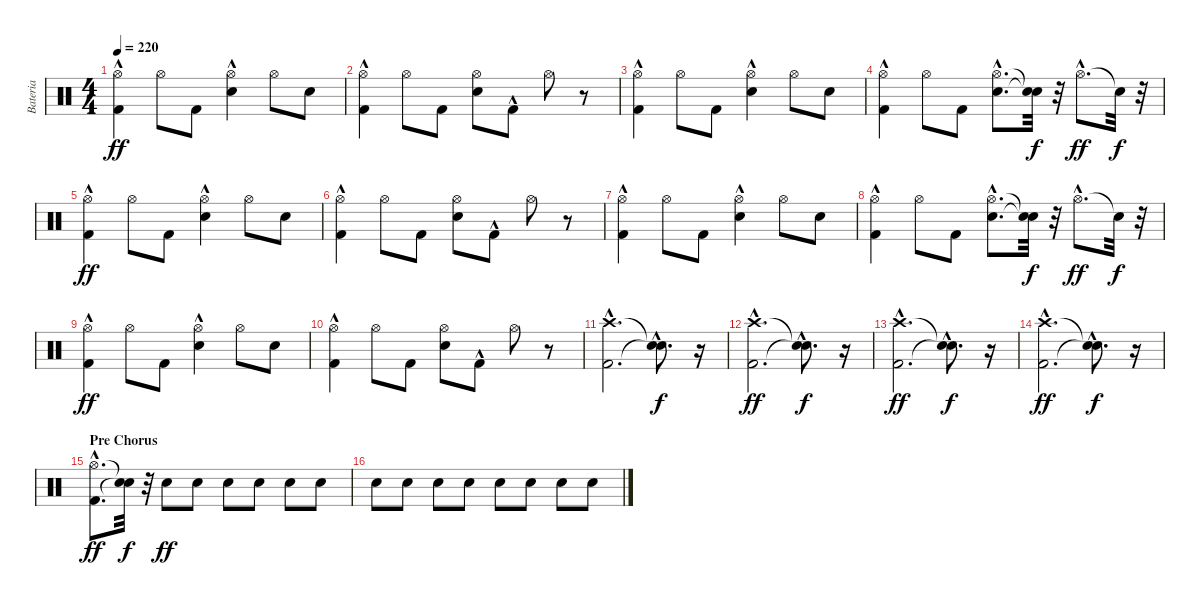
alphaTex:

\track ("Bateria" "Bateria") {instrument percussion}
\staff {score}
\articulation defaults
\ts (4 4)
\tempo 220
\clef neutral
\ks c
("Kick (hit) 2"{hac} "Hi-Hat (open)"{hac}).4{dy ff} "Hi-Hat (open)".8 "Kick (hit) 2".8 ("Electric Snare (hit)"{hac} "Hi-Hat (open)"{hac}).4 "Hi-Hat (open)".8 "Electric Snare (hit)".8 |
("Kick (hit) 2"{hac} "Hi-Hat (open)"{hac}).4 "Hi-Hat (open)".8 "Kick (hit) 2".8 ("Electric Snare (hit)" "Hi-Hat (open)").8 "Kick (hit) 2"{hac}.8 "Hi-Hat (open)".8 r.8 |
("Kick (hit) 2"{hac} "Hi-Hat (open)"{hac}).4 "Hi-Hat (open)".8 "Kick (hit) 2".8 ("Electric Snare (hit)"{hac} "Hi-Hat (open)"{hac}).4 "Hi-Hat (open)".8 "Electric Snare (hit)".8 |
("Kick (hit) 2"{hac} "Hi-Hat (open)"{hac}).4 "Hi-Hat (open)".8 "Kick (hit) 2".8 ("Electric Snare (hit)"{hac} "Hi-Hat (open)"{hac}).8{d} ("Snare (hit)"{t} "Snare (hit)"{t}).32{dy f} r.32 "Hi-Hat (open)"{hac}.8{d dy ff} "Snare (hit)"{t}.32{dy f} r.32 |
("Kick (hit) 2"{hac} "Hi-Hat (open)"{hac}).4{dy ff} "Hi-Hat (open)".8 "Kick (hit) 2".8 ("Electric Snare (hit)"{hac} "Hi-Hat (open)"{hac}).4 "Hi-Hat (open)".8 "Electric Snare (hit)".8 |
("Kick (hit) 2"{hac} "Hi-Hat (open)"{hac}).4 "Hi-Hat (open)".8 "Kick (hit) 2".8 ("Electric Snare (hit)" "Hi-Hat (open)").8 "Kick (hit) 2"{hac}.8 "Hi-Hat (open)".8 r.8 |
("Kick (hit) 2"{hac} "Hi-Hat (open)"{hac}).4 "Hi-Hat (open)".8 "Kick (hit) 2".8 ("Electric Snare (hit)"{hac} "Hi-Hat (open)"{hac}).4 "Hi-Hat (open)".8 "Electric Snare (hit)".8 |
("Kick (hit) 2"{hac} "Hi-Hat (open)"{hac}).4 "Hi-Hat (open)".8 "Kick (hit) 2".8 ("Electric Snare (hit)"{hac} "Hi-Hat (open)"{hac}).8{d} ("Snare (hit)"{t} "Snare (hit)"{t}).32{dy f} r.32 "Hi-Hat (open)"{hac}.8{d dy ff} "Snare (hit)"{t}.32{dy f} r.32 |
("Kick (hit) 2"{hac} "Hi-Hat (open)"{hac}).4{dy ff} "Hi-Hat (open)".8 "Kick (hit) 2".8 ("Electric Snare (hit)"{hac} "Hi-Hat (open)"{hac}).4 "Hi-Hat (open)".8 "Electric Snare (hit)".8 |
("Kick (hit) 2"{hac} "Hi-Hat (open)"{hac}).4 "Hi-Hat (open)".8 "Kick (hit) 2".8 ("Electric Snare (hit)" "Hi-Hat (open)").8 "Kick (hit) 2"{hac}.8 "Hi-Hat (open)".8 r.8 |
("Kick (hit) 2"{hac} "Crash high (hit)"{hac}).2{d} ("Snare (hit)"{hac t} "Snare (hit)"{hac t}).8{d dy f} r.16 |
("Kick (hit) 2"{hac} "Crash high (hit)"{hac}).2{d dy ff} ("Snare (hit)"{hac t} "Snare (hit)"{hac t}).8{d dy f} r.16 |
("Kick (hit) 2"{hac} "Crash high (hit)"{hac}).2{d dy ff} ("Snare (hit)"{hac t} "Snare (hit)"{hac t}).8{d dy f} r.16 |
("Kick (hit) 2"{hac} "Crash high (hit)"{hac}).2{d dy ff} ("Snare (hit)"{hac t} "Snare (hit)"{hac t}).8{d dy f} r.16 |
\section ("" "Pre Chorus")
("Kick (hit) 2"{hac} "Hi-Hat (open)"{hac}).8{d dy ff} ("Snare (hit)"{t} "Snare (hit)"{t}).32{dy f} r.32 "Electric Snare (hit)".8{dy ff} "Electric Snare (hit)".8 "Electric Snare (hit)".8 "Electric Snare (hit)".8 "Electric Snare (hit)".8 "Electric Snare (hit)".8 |
"Electric Snare (hit)".8 "Electric Snare (hit)".8 "Electric Snare (hit)".8 "Electric Snare (hit)".8 "Electric Snare (hit)".8 "Electric Snare (hit)".8 "Electric Snare (hit)".8 "Electric Snare (hit)".8
